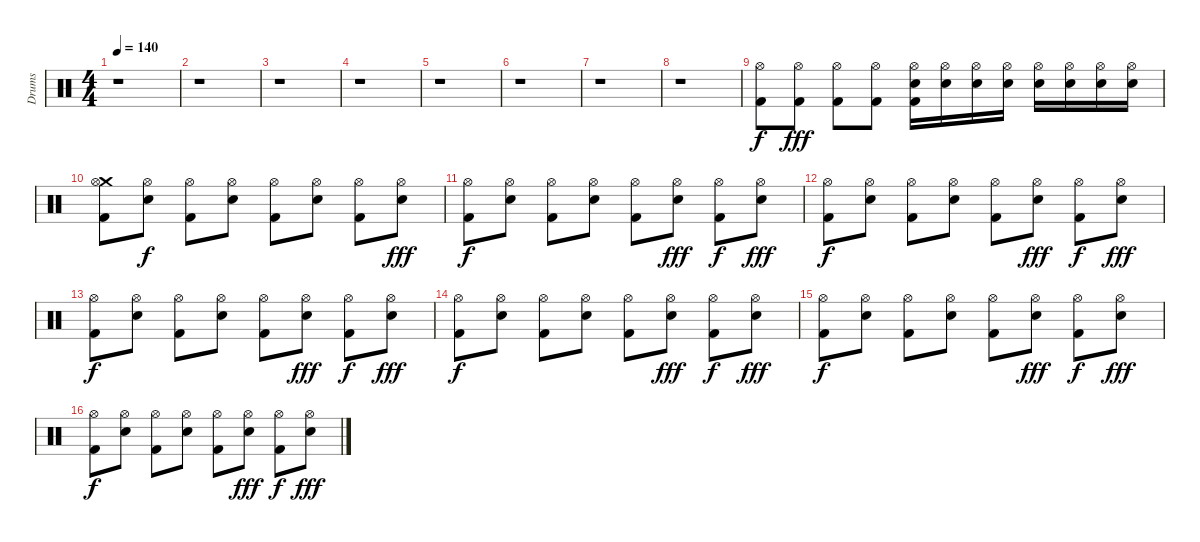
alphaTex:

\track ("Drums" "Drums") {instrument percussion}
\staff {score}
\articulation defaults
\ts (4 4)
\tempo 140
\clef neutral
\ks c
r.1{dy f} |
r.1 |
r.1 |
r.1 |
r.1 |
r.1 |
r.1 |
r.1 |
("Hi-Hat (open)" "Kick (hit) 2").8 ("Hi-Hat (open)" "Kick (hit) 2").8{dy fff} ("Hi-Hat (open)" "Kick (hit) 2").8 ("Hi-Hat (open)" "Kick (hit) 2").8 ("Hi-Hat (open)" "Electric Snare (hit)" "Kick (hit) 2").16 ("Hi-Hat (open)" "Electric Snare (hit)").16 ("Hi-Hat (open)" "Electric Snare (hit)").16 ("Hi-Hat (open)" "Electric Snare (hit)").16 ("Hi-Hat (open)" "Electric Snare (hit)").16 ("Hi-Hat (open)" "Electric Snare (hit)").16 ("Hi-Hat (open)" "Electric Snare (hit)").16 ("Hi-Hat (open)" "Electric Snare (hit)").16 |
("Crash medium (hit)" "Hi-Hat (open)" "Kick (hit) 2").8 ("Hi-Hat (open)" "Electric Snare (hit)").8{dy f} ("Hi-Hat (open)" "Kick (hit) 2").8 ("Hi-Hat (open)" "Electric Snare (hit)").8 ("Hi-Hat (open)" "Kick (hit) 2").8 ("Hi-Hat (open)" "Electric Snare (hit)").8 ("Hi-Hat (open)" "Kick (hit) 2").8 ("Hi-Hat (open)" "Electric Snare (hit)").8{dy fff} |
("Hi-Hat (open)" "Kick (hit) 2").8{dy f} ("Hi-Hat (open)" "Electric Snare (hit)").8 ("Hi-Hat (open)" "Kick (hit) 2").8 ("Hi-Hat (open)" "Electric Snare (hit)").8 ("Hi-Hat (open)" "Kick (hit) 2").8 ("Hi-Hat (open)" "Electric Snare (hit)").8{dy fff} ("Hi-Hat (open)" "Kick (hit) 2").8{dy f} ("Hi-Hat (open)" "Electric Snare (hit)").8{dy fff} |
("Hi-Hat (open)" "Kick (hit) 2").8{dy f} ("Hi-Hat (open)" "Electric Snare (hit)").8 ("Hi-Hat (open)" "Kick (hit) 2").8 ("Hi-Hat (open)" "Electric Snare (hit)").8 ("Hi-Hat (open)" "Kick (hit) 2").8 ("Hi-Hat (open)" "Electric Snare (hit)").8{dy fff} ("Hi-Hat (open)" "Kick (hit) 2").8{dy f} ("Hi-Hat (open)" "Electric Snare (hit)").8{dy fff} |
("Hi-Hat (open)" "Kick (hit) 2").8{dy f} ("Hi-Hat (open)" "Electric Snare (hit)").8 ("Hi-Hat (open)" "Kick (hit) 2").8 ("Hi-Hat (open)" "Electric Snare (hit)").8 ("Hi-Hat (open)" "Kick (hit) 2").8 ("Hi-Hat (open)" "Electric Snare (hit)").8{dy fff} ("Hi-Hat (open)" "Kick (hit) 2").8{dy f} ("Hi-Hat (open)" "Electric Snare (hit)").8{dy fff} |
("Hi-Hat (open)" "Kick (hit) 2").8{dy f} ("Hi-Hat (open)" "Electric Snare (hit)").8 ("Hi-Hat (open)" "Kick (hit) 2").8 ("Hi-Hat (open)" "Electric Snare (hit)").8 ("Hi-Hat (open)" "Kick (hit) 2").8 ("Hi-Hat (open)" "Electric Snare (hit)").8{dy fff} ("Hi-Hat (open)" "Kick (hit) 2").8{dy f} ("Hi-Hat (open)" "Electric Snare (hit)").8{dy fff} |
("Hi-Hat (open)" "Kick (hit) 2").8{dy f} ("Hi-Hat (open)" "Electric Snare (hit)").8 ("Hi-Hat (open)" "Kick (hit) 2").8 ("Hi-Hat (open)" "Electric Snare (hit)").8 ("Hi-Hat (open)" "Kick (hit) 2").8 ("Hi-Hat (open)" "Electric Snare (hit)").8{dy fff} ("Hi-Hat (open)" "Kick (hit) 2").8{dy f} ("Hi-Hat (open)" "Electric Snare (hit)").8{dy fff} |
("Hi-Hat (open)" "Kick (hit) 2").8{dy f} ("Hi-Hat (open)" "Electric Snare (hit)").8 ("Hi-Hat (open)" "Kick (hit) 2").8 ("Hi-Hat (open)" "Electric Snare (hit)").8 ("Hi-Hat (open)" "Kick (hit) 2").8 ("Hi-Hat (open)" "Electric Snare (hit)").8{dy fff} ("Hi-Hat (open)" "Kick (hit) 2").8{dy f} ("Hi-Hat (open)" "Electric Snare (hit)").8{dy fff}
